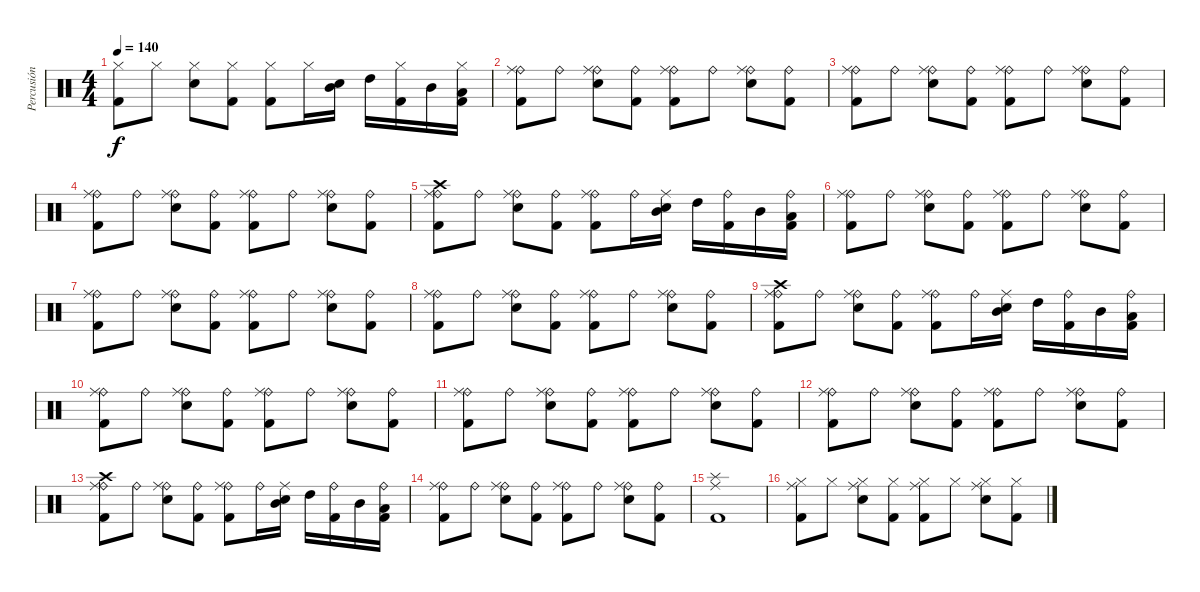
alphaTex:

\track ("Percusión" "Percusión") {instrument percussion}
\staff {score}
\articulation defaults
\ts (4 4)
\tempo 140
\clef neutral
\ks c
("Hi-Hat (closed)" "Kick (hit) 2").8{dy f} "Hi-Hat (closed)".8 ("Hi-Hat (closed)" "Snare (hit) 2").8 ("Hi-Hat (closed)" "Kick (hit) 2").8 ("Hi-Hat (closed)" "Kick (hit) 2").8 "Hi-Hat (closed)".16 ("Mid Tom (hit)" "Snare (hit) 2").16 "High Tom (hit)".16 ("Hi-Hat (closed)" "Kick (hit) 2").16 "Mid Tom (hit)".16 ("Hi-Hat (closed)" "Low Tom (hit)" "Kick (hit) 2").16 |
("Ride (bell)" "Kick (hit) 2" "Ride (middle)").8 "Ride (bell)".8 ("Ride (bell)" "Snare (hit) 2" "Ride (middle)").8 ("Ride (bell)" "Kick (hit) 2").8 ("Ride (bell)" "Kick (hit) 2" "Ride (middle)").8 "Ride (bell)".8 ("Ride (bell)" "Snare (hit) 2" "Ride (middle)").8 ("Ride (bell)" "Kick (hit) 2").8 |
("Ride (bell)" "Kick (hit) 2" "Ride (middle)").8 "Ride (bell)".8 ("Ride (bell)" "Snare (hit) 2" "Ride (middle)").8 ("Ride (bell)" "Kick (hit) 2").8 ("Ride (bell)" "Kick (hit) 2" "Ride (middle)").8 "Ride (bell)".8 ("Ride (bell)" "Snare (hit) 2" "Ride (middle)").8 ("Ride (bell)" "Kick (hit) 2").8 |
("Ride (bell)" "Kick (hit) 2" "Ride (middle)").8 "Ride (bell)".8 ("Ride (bell)" "Snare (hit) 2" "Ride (middle)").8 ("Ride (bell)" "Kick (hit) 2").8 ("Ride (bell)" "Kick (hit) 2" "Ride (middle)").8 "Ride (bell)".8 ("Ride (bell)" "Snare (hit) 2" "Ride (middle)").8 ("Ride (bell)" "Kick (hit) 2").8 |
("Ride (bell)" "Kick (hit) 2" "Crash high (hit)" "Ride (middle)").8 "Ride (bell)".8 ("Ride (bell)" "Snare (hit) 2" "Ride (middle)").8 ("Ride (bell)" "Kick (hit) 2").8 ("Ride (bell)" "Kick (hit) 2" "Ride (middle)").8 "Ride (bell)".16 ("Mid Tom (hit)" "Snare (hit) 2" "Ride (middle)").16 "High Tom (hit)".16 ("Ride (bell)" "Kick (hit) 2").16 "Mid Tom (hit)".16 ("Ride (bell)" "Low Tom (hit)" "Kick (hit) 2").16 |
("Ride (bell)" "Kick (hit) 2" "Ride (middle)").8 "Ride (bell)".8 ("Ride (bell)" "Snare (hit) 2" "Ride (middle)").8 ("Ride (bell)" "Kick (hit) 2").8 ("Ride (bell)" "Kick (hit) 2" "Ride (middle)").8 "Ride (bell)".8 ("Ride (bell)" "Snare (hit) 2" "Ride (middle)").8 ("Ride (bell)" "Kick (hit) 2").8 |
("Ride (bell)" "Kick (hit) 2" "Ride (middle)").8 "Ride (bell)".8 ("Ride (bell)" "Snare (hit) 2" "Ride (middle)").8 ("Ride (bell)" "Kick (hit) 2").8 ("Ride (bell)" "Kick (hit) 2" "Ride (middle)").8 "Ride (bell)".8 ("Ride (bell)" "Snare (hit) 2" "Ride (middle)").8 ("Ride (bell)" "Kick (hit) 2").8 |
("Ride (bell)" "Kick (hit) 2" "Ride (middle)").8 "Ride (bell)".8 ("Ride (bell)" "Snare (hit) 2" "Ride (middle)").8 ("Ride (bell)" "Kick (hit) 2").8 ("Ride (bell)" "Kick (hit) 2" "Ride (middle)").8 "Ride (bell)".8 ("Ride (bell)" "Snare (hit) 2" "Ride (middle)").8 ("Ride (bell)" "Kick (hit) 2").8 |
("Ride (bell)" "Kick (hit) 2" "Crash high (hit)" "Ride (middle)").8 "Ride (bell)".8 ("Ride (bell)" "Snare (hit) 2" "Ride (middle)").8 ("Ride (bell)" "Kick (hit) 2").8 ("Ride (bell)" "Kick (hit) 2" "Ride (middle)").8 "Ride (bell)".16 ("Mid Tom (hit)" "Snare (hit) 2" "Ride (middle)").16 "High Tom (hit)".16 ("Ride (bell)" "Kick (hit) 2").16 "Mid Tom (hit)".16 ("Ride (bell)" "Low Tom (hit)" "Kick (hit) 2").16 |
("Ride (bell)" "Kick (hit) 2" "Ride (middle)").8 "Ride (bell)".8 ("Ride (bell)" "Snare (hit) 2" "Ride (middle)").8 ("Ride (bell)" "Kick (hit) 2").8 ("Ride (bell)" "Kick (hit) 2" "Ride (middle)").8 "Ride (bell)".8 ("Ride (bell)" "Snare (hit) 2" "Ride (middle)").8 ("Ride (bell)" "Kick (hit) 2").8 |
("Ride (bell)" "Kick (hit) 2" "Ride (middle)").8 "Ride (bell)".8 ("Ride (bell)" "Snare (hit) 2" "Ride (middle)").8 ("Ride (bell)" "Kick (hit) 2").8 ("Ride (bell)" "Kick (hit) 2" "Ride (middle)").8 "Ride (bell)".8 ("Ride (bell)" "Snare (hit) 2" "Ride (middle)").8 ("Ride (bell)" "Kick (hit) 2").8 |
("Ride (bell)" "Kick (hit) 2" "Ride (middle)").8 "Ride (bell)".8 ("Ride (bell)" "Snare (hit) 2" "Ride (middle)").8 ("Ride (bell)" "Kick (hit) 2").8 ("Ride (bell)" "Kick (hit) 2" "Ride (middle)").8 "Ride (bell)".8 ("Ride (bell)" "Snare (hit) 2" "Ride (middle)").8 ("Ride (bell)" "Kick (hit) 2").8 |
("Ride (bell)" "Kick (hit) 2" "Crash high (hit)" "Ride (middle)").8 "Ride (bell)".8 ("Ride (bell)" "Snare (hit) 2" "Ride (middle)").8 ("Ride (bell)" "Kick (hit) 2").8 ("Ride (bell)" "Kick (hit) 2" "Ride (middle)").8 "Ride (bell)".16 ("Mid Tom (hit)" "Snare (hit) 2" "Ride (middle)").16 "High Tom (hit)".16 ("Ride (bell)" "Kick (hit) 2").16 "Mid Tom (hit)".16 ("Ride (bell)" "Low Tom (hit)" "Kick (hit) 2").16 |
("Ride (bell)" "Kick (hit) 2" "Ride (middle)").8 "Ride (bell)".8 ("Ride (bell)" "Snare (hit) 2" "Ride (middle)").8 ("Ride (bell)" "Kick (hit) 2").8 ("Ride (bell)" "Kick (hit) 2" "Ride (middle)").8 "Ride (bell)".8 ("Ride (bell)" "Snare (hit) 2" "Ride (middle)").8 ("Ride (bell)" "Kick (hit) 2").8 |
("Splash (hit)" "Kick (hit) 2" "Ride (middle)").1 |
("Hi-Hat (closed)" "Kick (hit) 2" "Ride (middle)").8 "Hi-Hat (closed)".8 ("Hi-Hat (closed)" "Snare (hit) 2" "Ride (middle)").8 ("Hi-Hat (closed)" "Kick (hit) 2").8 ("Hi-Hat (closed)" "Kick (hit) 2" "Ride (middle)").8 "Hi-Hat (closed)".8 ("Hi-Hat (closed)" "Snare (hit) 2" "Ride (middle)").8 ("Hi-Hat (closed)" "Kick (hit) 2").8
